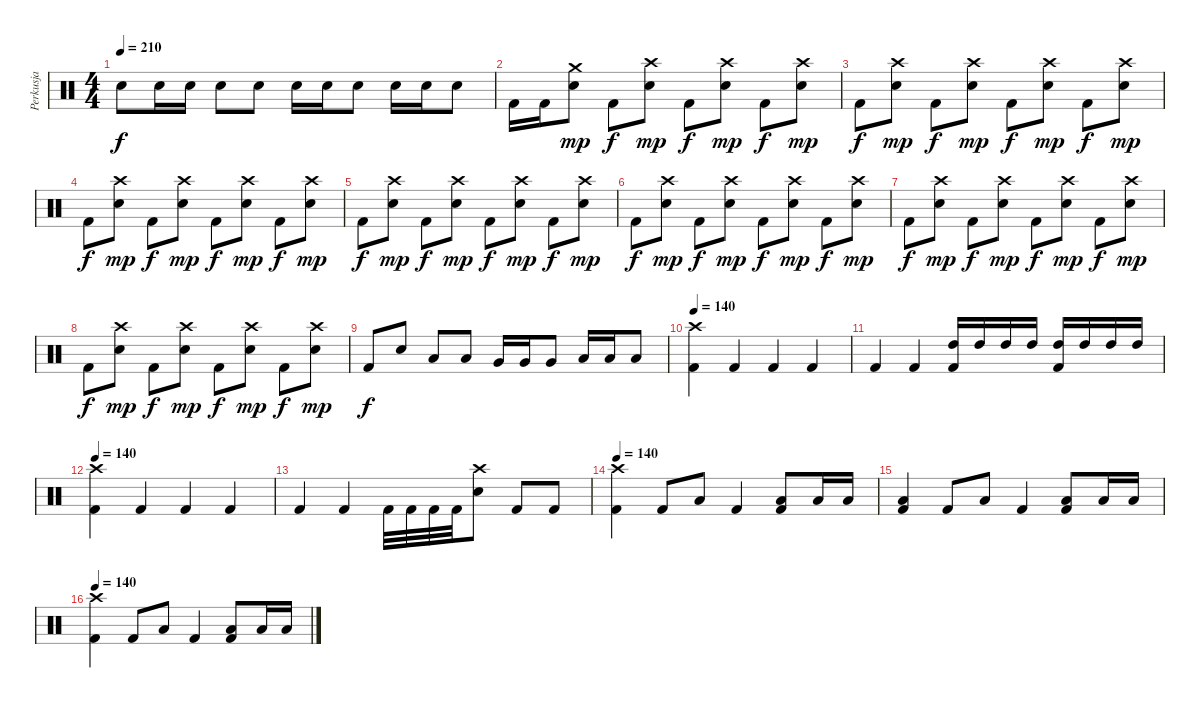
\track ("Perkusja" "Perkusja") {instrument percussion}
\staff {score}
\articulation defaults
\ts (4 4)
\tempo 210
\clef neutral
\ks c "Electric Snare (hit)".8{dy f} "Electric Snare (hit)".16 "Electric Snare (hit)".16 "Electric Snare (hit)".8 "Electric Snare (hit)".8 "Electric Snare (hit)".16 "Electric Snare (hit)".16 "Electric Snare (hit)".8 "Electric Snare (hit)".16 "Electric Snare (hit)".16 "Electric Snare (hit)".8
|
"Kick (hit) 2".16 "Kick (hit) 2".16 ("Crash medium (hit)" "Electric Snare (hit)").8{dy mp} "Kick (hit) 2".8{dy f} ("Crash high (hit)" "Electric Snare (hit)").8{dy mp} "Kick (hit) 2".8{dy f} ("Crash high (hit)" "Electric Snare (hit)").8{dy mp} "Kick (hit) 2".8{dy f} ("Crash high (hit)" "Electric Snare (hit)").8{dy mp} |
"Kick (hit) 2".8{dy f} ("Crash high (hit)" "Electric Snare (hit)").8{dy mp} "Kick (hit) 2".8{dy f} ("Crash high (hit)" "Electric Snare (hit)").8{dy mp} "Kick (hit) 2".8{dy f} ("Crash high (hit)" "Electric Snare (hit)").8{dy mp} "Kick (hit) 2".8{dy f} ("Crash high (hit)" "Electric Snare (hit)").8{dy mp} |
"Kick (hit) 2".8{dy f} ("Crash high (hit)" "Electric Snare (hit)").8{dy mp} "Kick (hit) 2".8{dy f} ("Crash high (hit)" "Electric Snare (hit)").8{dy mp} "Kick (hit) 2".8{dy f} ("Crash high (hit)" "Electric Snare (hit)").8{dy mp} "Kick (hit) 2".8{dy f} ("Crash high (hit)" "Electric Snare (hit)").8{dy mp} |
"Kick (hit) 2".8{dy f} ("Crash high (hit)" "Electric Snare (hit)").8{dy mp} "Kick (hit) 2".8{dy f} ("Crash high (hit)" "Electric Snare (hit)").8{dy mp} "Kick (hit) 2".8{dy f} ("Crash high (hit)" "Electric Snare (hit)").8{dy mp} "Kick (hit) 2".8{dy f} ("Crash high (hit)" "Electric Snare (hit)").8{dy mp} |
"Kick (hit) 2".8{dy f} ("Crash high (hit)" "Electric Snare (hit)").8{dy mp} "Kick (hit) 2".8{dy f} ("Crash high (hit)" "Electric Snare (hit)").8{dy mp} "Kick (hit) 2".8{dy f} ("Crash high (hit)" "Electric Snare (hit)").8{dy mp} "Kick (hit) 2".8{dy f} ("Crash high (hit)" "Electric Snare (hit)").8{dy mp} |
"Kick (hit) 2".8{dy f} ("Crash high (hit)" "Electric Snare (hit)").8{dy mp} "Kick (hit) 2".8{dy f} ("Crash high (hit)" "Electric Snare (hit)").8{dy mp} "Kick (hit) 2".8{dy f} ("Crash high (hit)" "Electric Snare (hit)").8{dy mp} "Kick (hit) 2".8{dy f} ("Crash high (hit)" "Electric Snare (hit)").8{dy mp} |
"Kick (hit) 2".8{dy f} ("Crash high (hit)" "Electric Snare (hit)").8{dy mp} "Kick (hit) 2".8{dy f} ("Crash high (hit)" "Electric Snare (hit)").8{dy mp} "Kick (hit) 2".8{dy f} ("Crash high (hit)" "Electric Snare (hit)").8{dy mp} "Kick (hit) 2".8{dy f} ("Crash high (hit)" "Electric Snare (hit)").8{dy mp} |
"Kick (hit) 2".8{dy f} "Electric Snare (hit)".8 "Low Tom (hit)".8 "Low Tom (hit)".8 "Very Low Tom (hit)".16 "Very Low Tom (hit)".16 "Very Low Tom (hit)".8 "Low Floor Tom (hit)".16 "Low Floor Tom (hit)".16 "Low Floor Tom (hit)".8 |
\tempo 140
("Crash high (hit)" "Kick (hit) 2").4 "Kick (hit) 2".4 "Kick (hit) 2".4 "Kick (hit) 2".4 |
"Kick (hit) 2".4 "Kick (hit) 2".4 ("High Tom (hit)" "Kick (hit) 2").16 "High Tom (hit)".16 "High Tom (hit)".16 "High Tom (hit)".16 ("High Tom (hit)" "Kick (hit) 2").16 "High Tom (hit)".16 "High Tom (hit)".16 "High Tom (hit)".16 |
\tempo 140
("Crash high (hit)" "Kick (hit) 2").4 "Kick (hit) 2".4 "Kick (hit) 2".4 "Kick (hit) 2".4 |
"Kick (hit) 2".4 "Kick (hit) 2".4 "Kick (hit) 2".32 "Kick (hit) 2".32 "Kick (hit) 2".32 "Kick (hit) 2".32 ("Crash high (hit)" "Electric Snare (hit)").8 "Kick (hit) 2".8 "Kick (hit) 2".8 |
\tempo 140
("Crash high (hit)" "Kick (hit) 2").4 "Kick (hit) 2".8 "Low Floor Tom (hit)".8 "Kick (hit) 2".4 ("Low Floor Tom (hit)" "Kick (hit) 2").8 "Low Floor Tom (hit)".16 "Low Floor Tom (hit)".16 |
("Low Floor Tom (hit)" "Kick (hit) 2").4 "Kick (hit) 2".8 "Low Floor Tom (hit)".8 "Kick (hit) 2".4 ("Low Floor Tom (hit)" "Kick (hit) 2").8 "Low Floor Tom (hit)".16 "Low Floor Tom (hit)".16 |
\tempo 140
("Crash high (hit)" "Kick (hit) 2").4 "Kick (hit) 2".8 "Low Floor Tom (hit)".8 "Kick (hit) 2".4 ("Low Floor Tom (hit)" "Kick (hit) 2").8 "Low Floor Tom (hit)".16 "Low Floor Tom (hit)".16
